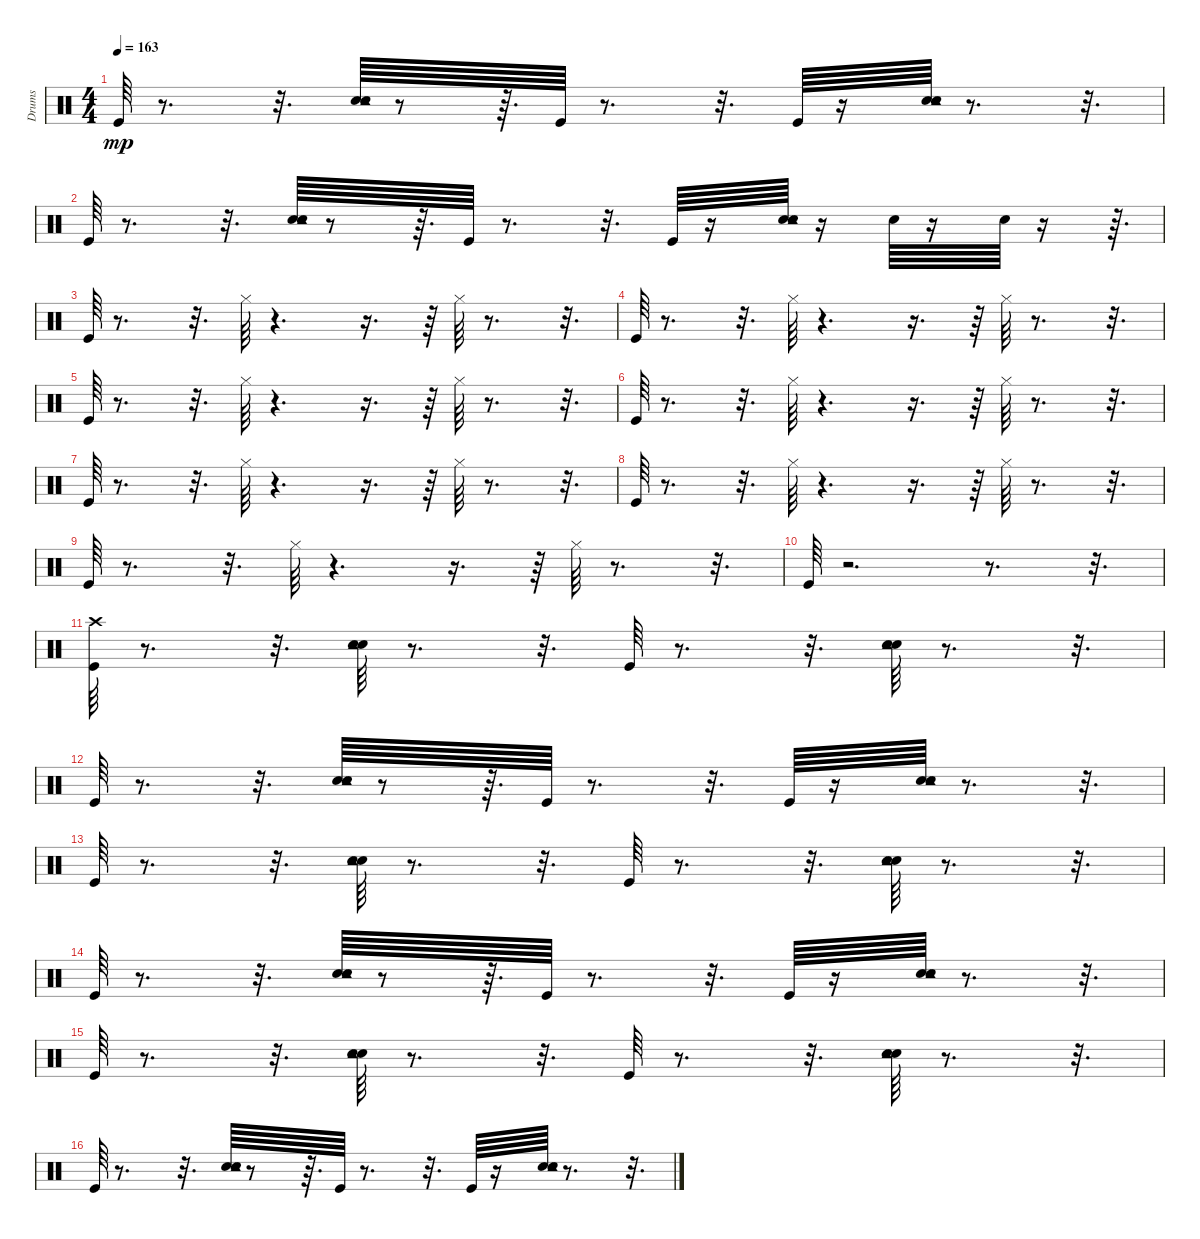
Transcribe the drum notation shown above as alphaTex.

\track ("Drums" "Drums") {instrument percussion}
\staff {score}
\articulation defaults
\ts (4 4)
\tempo 163
\clef neutral
\ks c "Kick (hit)".64{dy mp}
r.8{d} r.32{d} ("Snare (hit) 2" "Tambourine (hit)" "Hand Clap (hit)").64 r.8 r.64{d} "Kick (hit)".64 r.8{d} r.32{d} "Kick (hit)".64 r.16 ("Snare (hit) 2" "Tambourine (hit)" "Hand Clap (hit)").64 r.8{d} r.32{d} |
"Kick (hit)".64 r.8{d} r.32{d} ("Snare (hit) 2" "Tambourine (hit)" "Hand Clap (hit)").64 r.8 r.64{d} "Kick (hit)".64 r.8{d} r.32{d} "Kick (hit)".64 r.16 ("Snare (hit) 2" "Tambourine (hit)" "Hand Clap (hit)").64 r.16 "Snare (hit) 2".64 r.16 "Snare (hit) 2".64 r.16 r.64{d} |
"Kick (hit)".64 r.8{d} r.32{d} "Hi-Hat (closed)".64 r.4{d} r.16{d} r.64 "Hi-Hat (closed)".64 r.8{d} r.32{d} |
"Kick (hit)".64 r.8{d} r.32{d} "Hi-Hat (closed)".64 r.4{d} r.16{d} r.64 "Hi-Hat (closed)".64 r.8{d} r.32{d} |
"Kick (hit)".64 r.8{d} r.32{d} "Hi-Hat (closed)".64 r.4{d} r.16{d} r.64 "Hi-Hat (closed)".64 r.8{d} r.32{d} |
"Kick (hit)".64 r.8{d} r.32{d} "Hi-Hat (closed)".64 r.4{d} r.16{d} r.64 "Hi-Hat (closed)".64 r.8{d} r.32{d} |
"Kick (hit)".64 r.8{d} r.32{d} "Hi-Hat (closed)".64 r.4{d} r.16{d} r.64 "Hi-Hat (closed)".64 r.8{d} r.32{d} |
"Kick (hit)".64 r.8{d} r.32{d} "Hi-Hat (closed)".64 r.4{d} r.16{d} r.64 "Hi-Hat (closed)".64 r.8{d} r.32{d} |
"Kick (hit)".64 r.8{d} r.32{d} "Hi-Hat (closed)".64 r.4{d} r.16{d} r.64 "Hi-Hat (closed)".64 r.8{d} r.32{d} |
"Kick (hit)".64 r.2{d} r.8{d} r.32{d} |
("Kick (hit)" "Crash high (hit)").64 r.8{d} r.32{d} ("Snare (hit) 2" "Tambourine (hit)" "Hand Clap (hit)").64 r.8{d} r.32{d} "Kick (hit)".64 r.8{d} r.32{d} ("Snare (hit) 2" "Tambourine (hit)" "Hand Clap (hit)").64 r.8{d} r.32{d} |
"Kick (hit)".64 r.8{d} r.32{d} ("Snare (hit) 2" "Tambourine (hit)" "Hand Clap (hit)").64 r.8 r.64{d} "Kick (hit)".64 r.8{d} r.32{d} "Kick (hit)".64 r.16 ("Snare (hit) 2" "Tambourine (hit)" "Hand Clap (hit)").64 r.8{d} r.32{d} |
"Kick (hit)".64 r.8{d} r.32{d} ("Snare (hit) 2" "Tambourine (hit)" "Hand Clap (hit)").64 r.8{d} r.32{d} "Kick (hit)".64 r.8{d} r.32{d} ("Snare (hit) 2" "Tambourine (hit)" "Hand Clap (hit)").64 r.8{d} r.32{d} |
"Kick (hit)".64 r.8{d} r.32{d} ("Snare (hit) 2" "Tambourine (hit)" "Hand Clap (hit)").64 r.8 r.64{d} "Kick (hit)".64 r.8{d} r.32{d} "Kick (hit)".64 r.16 ("Snare (hit) 2" "Tambourine (hit)" "Hand Clap (hit)").64 r.8{d} r.32{d} |
"Kick (hit)".64 r.8{d} r.32{d} ("Snare (hit) 2" "Tambourine (hit)" "Hand Clap (hit)").64 r.8{d} r.32{d} "Kick (hit)".64 r.8{d} r.32{d} ("Snare (hit) 2" "Tambourine (hit)" "Hand Clap (hit)").64 r.8{d} r.32{d} |
"Kick (hit)".64 r.8{d} r.32{d} ("Snare (hit) 2" "Tambourine (hit)" "Hand Clap (hit)").64 r.8 r.64{d} "Kick (hit)".64 r.8{d} r.32{d} "Kick (hit)".64 r.16 ("Snare (hit) 2" "Tambourine (hit)" "Hand Clap (hit)").64 r.8{d} r.32{d}
